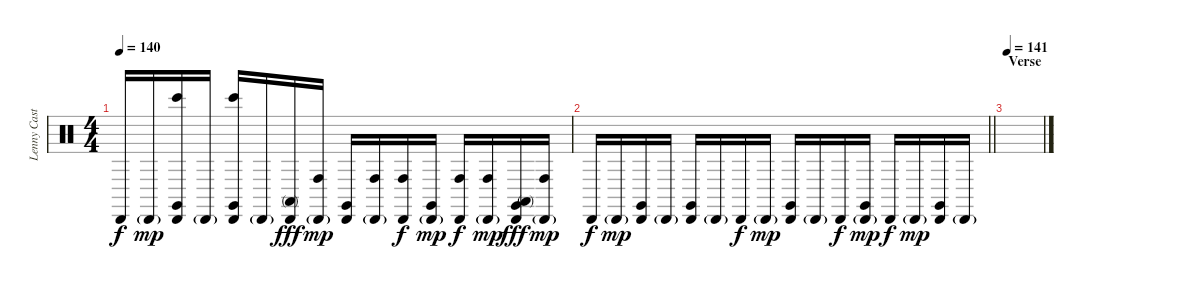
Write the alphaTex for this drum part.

\track ("Lenny Castro - Percussion" "Lenny Cast") {instrument percussion}
\staff {score}
\articulation defaults
\ts (4 4)
\tempo 140
\clef neutral
\ks c "Cabasa (hit)".16{dy f} "Cabasa (hit)"{g}.16{dy mp}
("Claves (hit)" "Cabasa (hit)" "Bongo High (hit)").16 "Cabasa (hit)"{g}.16 ("Claves (hit)" "Cabasa (hit)" "Bongo High (hit)").16 "Cabasa (hit)"{g}.16 ("Cabasa (hit)" "Conga high (mute)").16{dy fff} ("Cabasa (hit)"{g} "Conga high (hit)").16{dy mp} ("Claves (hit)" "Cabasa (hit)").16 ("Cabasa (hit)"{g} "Conga high (hit)").16 ("Cabasa (hit)" "Conga high (hit)").16{dy f} ("Claves (hit)" "Cabasa (hit)"{g}).16{dy mp} ("Cabasa (hit)" "Conga high (hit)").16{dy f} ("Cabasa (hit)"{g} "Conga high (hit)").16{dy mp} ("Claves (hit)" "Cabasa (hit)" "Conga high (mute)").16{dy fff} ("Cabasa (hit)"{g} "Conga high (hit)").16{dy mp} |
\barLineRight lightlight "Cabasa (hit)".16{dy f} "Cabasa (hit)"{g}.16{dy mp}
("Claves (hit)" "Cabasa (hit)").16 "Cabasa (hit)"{g}.16 ("Claves (hit)" "Cabasa (hit)").16 "Cabasa (hit)"{g}.16 "Cabasa (hit)".16{dy f} "Cabasa (hit)"{g}.16{dy mp} ("Claves (hit)" "Cabasa (hit)").16 "Cabasa (hit)"{g}.16 "Cabasa (hit)".16{dy f} ("Claves (hit)" "Cabasa (hit)"{g}).16{dy mp} "Cabasa (hit)".16{dy f} "Cabasa (hit)"{g}.16{dy mp} ("Claves (hit)" "Cabasa (hit)").16 "Cabasa (hit)"{g}.16 |
\section ("" "Verse")
\tempo 141
